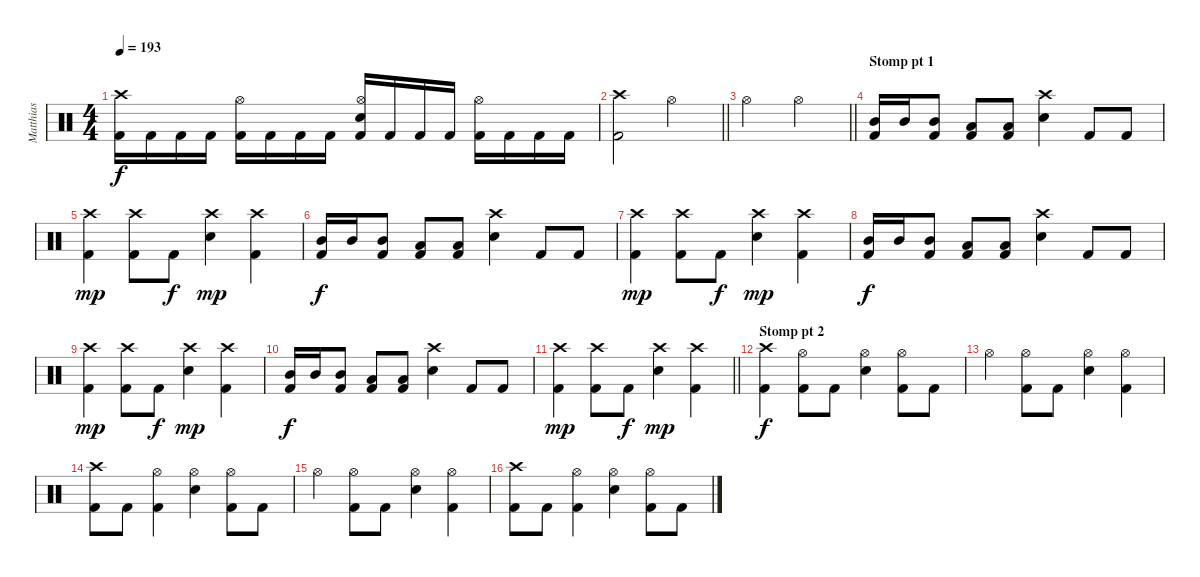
\track ("Matthias" "Matthias") {instrument percussion}
\staff {score}
\articulation defaults
\ts (4 4)
\tempo 193
\clef neutral
\ks c
("Crash high (hit)" "Kick (hit) 2").16{dy f} "Kick (hit) 2".16 "Kick (hit) 2".16 "Kick (hit) 2".16 ("Hi-Hat (open)" "Kick (hit) 2").16 "Kick (hit) 2".16 "Kick (hit) 2".16 "Kick (hit) 2".16 ("Hi-Hat (open)" "Electric Snare (hit)" "Kick (hit) 2").16 "Kick (hit) 2".16 "Kick (hit) 2".16 "Kick (hit) 2".16 ("Hi-Hat (open)" "Kick (hit) 2").16 "Kick (hit) 2".16 "Kick (hit) 2".16 "Kick (hit) 2".16 |
\barLineRight lightlight
("Crash high (hit)" "Kick (hit) 2").2 "Hi-Hat (open)".2 |
\barLineRight lightlight "Hi-Hat (open)".2 "Hi-Hat (open)".2
|
\section ("" "Stomp pt 1")
("Mid Tom (hit)" "Kick (hit) 2").16 "Mid Tom (hit)".16 ("Mid Tom (hit)" "Kick (hit) 2").8 ("Low Tom (hit)" "Kick (hit) 2").8 ("Low Tom (hit)" "Kick (hit) 2").8 ("Crash high (hit)" "Electric Snare (hit)").4 "Kick (hit) 2".8 "Kick (hit) 2".8 |
("Crash high (hit)" "Kick (hit) 2").4{dy mp} ("Crash high (hit)" "Kick (hit) 2").8 "Kick (hit) 2".8{dy f} ("Crash high (hit)" "Electric Snare (hit)").4{dy mp} ("Crash high (hit)" "Kick (hit) 2").4 |
("Mid Tom (hit)" "Kick (hit) 2").16{dy f} "Mid Tom (hit)".16 ("Mid Tom (hit)" "Kick (hit) 2").8 ("Low Tom (hit)" "Kick (hit) 2").8 ("Low Tom (hit)" "Kick (hit) 2").8 ("Crash high (hit)" "Electric Snare (hit)").4 "Kick (hit) 2".8 "Kick (hit) 2".8 |
("Crash high (hit)" "Kick (hit) 2").4{dy mp} ("Crash high (hit)" "Kick (hit) 2").8 "Kick (hit) 2".8{dy f} ("Crash high (hit)" "Electric Snare (hit)").4{dy mp} ("Crash high (hit)" "Kick (hit) 2").4 |
("Mid Tom (hit)" "Kick (hit) 2").16{dy f} "Mid Tom (hit)".16 ("Mid Tom (hit)" "Kick (hit) 2").8 ("Low Tom (hit)" "Kick (hit) 2").8 ("Low Tom (hit)" "Kick (hit) 2").8 ("Crash high (hit)" "Electric Snare (hit)").4 "Kick (hit) 2".8 "Kick (hit) 2".8 |
("Crash high (hit)" "Kick (hit) 2").4{dy mp} ("Crash high (hit)" "Kick (hit) 2").8 "Kick (hit) 2".8{dy f} ("Crash high (hit)" "Electric Snare (hit)").4{dy mp} ("Crash high (hit)" "Kick (hit) 2").4 |
("Mid Tom (hit)" "Kick (hit) 2").16{dy f} "Mid Tom (hit)".16 ("Mid Tom (hit)" "Kick (hit) 2").8 ("Low Tom (hit)" "Kick (hit) 2").8 ("Low Tom (hit)" "Kick (hit) 2").8 ("Crash high (hit)" "Electric Snare (hit)").4 "Kick (hit) 2".8 "Kick (hit) 2".8 |
\barLineRight lightlight
("Crash high (hit)" "Kick (hit) 2").4{dy mp} ("Crash high (hit)" "Kick (hit) 2").8 "Kick (hit) 2".8{dy f} ("Crash high (hit)" "Electric Snare (hit)").4{dy mp} ("Crash high (hit)" "Kick (hit) 2").4 |
\section ("" "Stomp pt 2")
("Crash high (hit)" "Kick (hit) 2").4{dy f} ("Hi-Hat (open)" "Kick (hit) 2").8 "Kick (hit) 2".8 ("Hi-Hat (open)" "Electric Snare (hit)").4 ("Hi-Hat (open)" "Kick (hit) 2").8 "Kick (hit) 2".8 |
"Hi-Hat (open)".4 ("Hi-Hat (open)" "Kick (hit) 2").8 "Kick (hit) 2".8 ("Hi-Hat (open)" "Electric Snare (hit)").4 ("Hi-Hat (open)" "Kick (hit) 2").4 |
("Crash high (hit)" "Kick (hit) 2").8 "Kick (hit) 2".8 ("Hi-Hat (open)" "Kick (hit) 2").4 ("Hi-Hat (open)" "Electric Snare (hit)").4 ("Hi-Hat (open)" "Kick (hit) 2").8 "Kick (hit) 2".8 |
"Hi-Hat (open)".4 ("Hi-Hat (open)" "Kick (hit) 2").8 "Kick (hit) 2".8 ("Hi-Hat (open)" "Electric Snare (hit)").4 ("Hi-Hat (open)" "Kick (hit) 2").4 |
("Crash high (hit)" "Kick (hit) 2").8 "Kick (hit) 2".8 ("Hi-Hat (open)" "Kick (hit) 2").4 ("Hi-Hat (open)" "Electric Snare (hit)").4 ("Hi-Hat (open)" "Kick (hit) 2").8 "Kick (hit) 2".8
